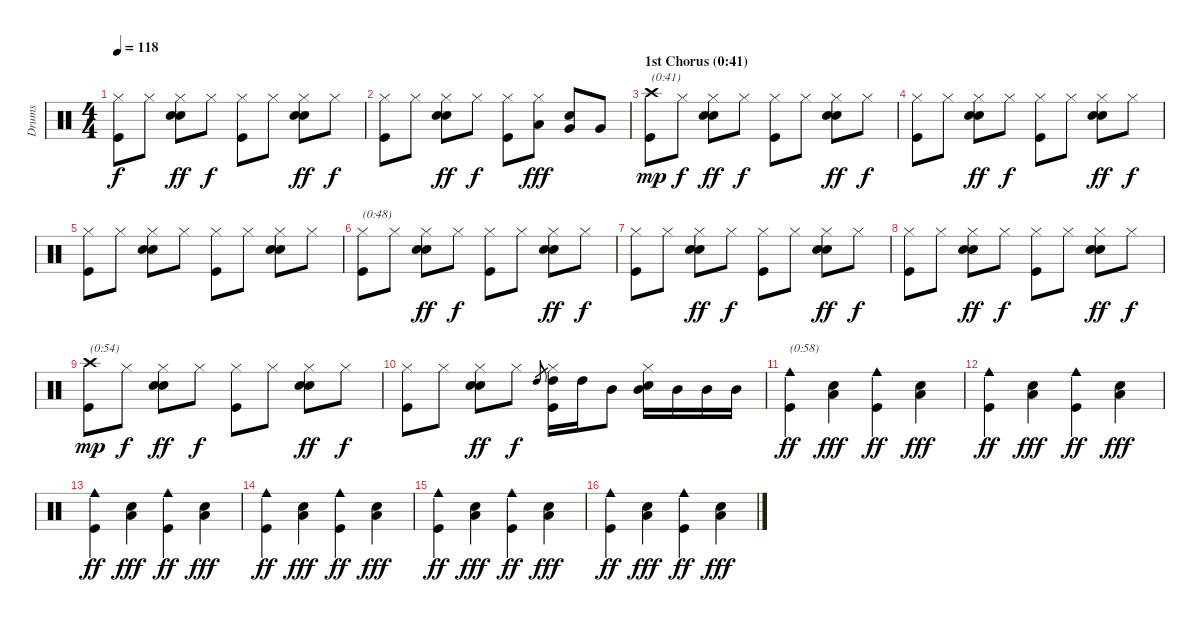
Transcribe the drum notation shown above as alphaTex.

\track ("Drums" "Drums") {instrument percussion}
\staff {score}
\articulation defaults
\ts (4 4)
\tempo 118
\clef neutral
\ks c
("Hi-Hat (closed)" "Kick (hit)").8{dy f} "Hi-Hat (closed)".8 ("Hi-Hat (closed)" "Electric Snare (hit)" "Snare (hit) 2").8{dy ff} "Hi-Hat (closed)".8{dy f} ("Hi-Hat (closed)" "Kick (hit)").8 "Hi-Hat (closed)".8 ("Hi-Hat (closed)" "Electric Snare (hit)" "Snare (hit) 2").8{dy ff} "Hi-Hat (closed)".8{dy f} |
("Hi-Hat (closed)" "Kick (hit)").8 "Hi-Hat (closed)".8 ("Hi-Hat (closed)" "Electric Snare (hit)" "Snare (hit) 2").8{dy ff} "Hi-Hat (closed)".8{dy f} ("Hi-Hat (closed)" "Kick (hit)").8 ("Hi-Hat (closed)" "Low Tom (hit)").8{dy fff} ("Electric Snare (hit)" "Very Low Tom (hit)").8 "Very Low Tom (hit)".8 |
\section ("" "1st Chorus (0:41)")
("Crash high (hit)" "Kick (hit)").8{txt "(0:41)" dy mp} "Hi-Hat (closed)".8{dy f} ("Hi-Hat (closed)" "Electric Snare (hit)" "Snare (hit) 2").8{dy ff} "Hi-Hat (closed)".8{dy f} ("Hi-Hat (closed)" "Kick (hit)").8 "Hi-Hat (closed)".8 ("Hi-Hat (closed)" "Electric Snare (hit)" "Snare (hit) 2").8{dy ff} "Hi-Hat (closed)".8{dy f} |
("Hi-Hat (closed)" "Kick (hit)").8 "Hi-Hat (closed)".8 ("Hi-Hat (closed)" "Electric Snare (hit)" "Snare (hit) 2").8{dy ff} "Hi-Hat (closed)".8{dy f} ("Hi-Hat (closed)" "Kick (hit)").8 "Hi-Hat (closed)".8 ("Hi-Hat (closed)" "Electric Snare (hit)" "Snare (hit) 2").8{dy ff} "Hi-Hat (closed)".8{dy f} |
("Hi-Hat (closed)" "Kick (hit)").8 "Hi-Hat (closed)".8 ("Hi-Hat (closed)" "Electric Snare (hit)" "Snare (hit) 2").8 "Hi-Hat (closed)".8 ("Hi-Hat (closed)" "Kick (hit)").8 "Hi-Hat (closed)".8 ("Hi-Hat (closed)" "Electric Snare (hit)" "Snare (hit) 2").8 "Hi-Hat (closed)".8 |
("Hi-Hat (closed)" "Kick (hit)").8{txt "(0:48)"} "Hi-Hat (closed)".8 ("Hi-Hat (closed)" "Electric Snare (hit)" "Snare (hit) 2").8{dy ff} "Hi-Hat (closed)".8{dy f} ("Hi-Hat (closed)" "Kick (hit)").8 "Hi-Hat (closed)".8 ("Hi-Hat (closed)" "Electric Snare (hit)" "Snare (hit) 2").8{dy ff} "Hi-Hat (closed)".8{dy f} |
("Hi-Hat (closed)" "Kick (hit)").8 "Hi-Hat (closed)".8 ("Hi-Hat (closed)" "Electric Snare (hit)" "Snare (hit) 2").8{dy ff} "Hi-Hat (closed)".8{dy f} ("Hi-Hat (closed)" "Kick (hit)").8 "Hi-Hat (closed)".8 ("Hi-Hat (closed)" "Electric Snare (hit)" "Snare (hit) 2").8{dy ff} "Hi-Hat (closed)".8{dy f} |
("Hi-Hat (closed)" "Kick (hit)").8 "Hi-Hat (closed)".8 ("Hi-Hat (closed)" "Electric Snare (hit)" "Snare (hit) 2").8{dy ff} "Hi-Hat (closed)".8{dy f} ("Hi-Hat (closed)" "Kick (hit)").8 "Hi-Hat (closed)".8 ("Hi-Hat (closed)" "Electric Snare (hit)" "Snare (hit) 2").8{dy ff} "Hi-Hat (closed)".8{dy f} |
("Crash high (hit)" "Kick (hit)").8{txt "(0:54)" dy mp} "Hi-Hat (closed)".8{dy f} ("Hi-Hat (closed)" "Electric Snare (hit)" "Snare (hit) 2").8{dy ff} "Hi-Hat (closed)".8{dy f} ("Hi-Hat (closed)" "Kick (hit)").8 "Hi-Hat (closed)".8 ("Hi-Hat (closed)" "Electric Snare (hit)" "Snare (hit) 2").8{dy ff} "Hi-Hat (closed)".8{dy f} |
("Hi-Hat (closed)" "Kick (hit)").8 "Hi-Hat (closed)".8 ("Hi-Hat (closed)" "Electric Snare (hit)" "Snare (hit) 2").8{dy ff} "Hi-Hat (closed)".8{dy f} "High Tom (hit)".8{gr} ("Hi-Hat (closed)" "High Tom (hit)" "Kick (hit)").16 "High Tom (hit)".16 "Mid Tom (hit)".8 ("Hi-Hat (closed)" "Electric Snare (hit)" "Mid Tom (hit)").16 "Mid Tom (hit)".16 "Mid Tom (hit)".16 "Mid Tom (hit)".16 |
("Cowbell medium (hit)" "Kick (hit)").4{txt "(0:58)" dy ff} ("Electric Snare (hit)" "Low Floor Tom (hit)").4{dy fff} ("Cowbell medium (hit)" "Kick (hit)").4{dy ff} ("Electric Snare (hit)" "Low Floor Tom (hit)").4{dy fff} |
("Cowbell medium (hit)" "Kick (hit)").4{dy ff} ("Electric Snare (hit)" "Low Floor Tom (hit)").4{dy fff} ("Cowbell medium (hit)" "Kick (hit)").4{dy ff} ("Electric Snare (hit)" "Low Floor Tom (hit)").4{dy fff} |
("Cowbell medium (hit)" "Kick (hit)").4{dy ff} ("Electric Snare (hit)" "Low Floor Tom (hit)").4{dy fff} ("Cowbell medium (hit)" "Kick (hit)").4{dy ff} ("Electric Snare (hit)" "Low Floor Tom (hit)").4{dy fff} |
("Cowbell medium (hit)" "Kick (hit)").4{dy ff} ("Electric Snare (hit)" "Low Floor Tom (hit)").4{dy fff} ("Cowbell medium (hit)" "Kick (hit)").4{dy ff} ("Electric Snare (hit)" "Low Floor Tom (hit)").4{dy fff} |
("Cowbell medium (hit)" "Kick (hit)").4{dy ff} ("Electric Snare (hit)" "Low Floor Tom (hit)").4{dy fff} ("Cowbell medium (hit)" "Kick (hit)").4{dy ff} ("Electric Snare (hit)" "Low Floor Tom (hit)").4{dy fff} |
("Cowbell medium (hit)" "Kick (hit)").4{dy ff} ("Electric Snare (hit)" "Low Floor Tom (hit)").4{dy fff} ("Cowbell medium (hit)" "Kick (hit)").4{dy ff} ("Electric Snare (hit)" "Low Floor Tom (hit)").4{dy fff}
